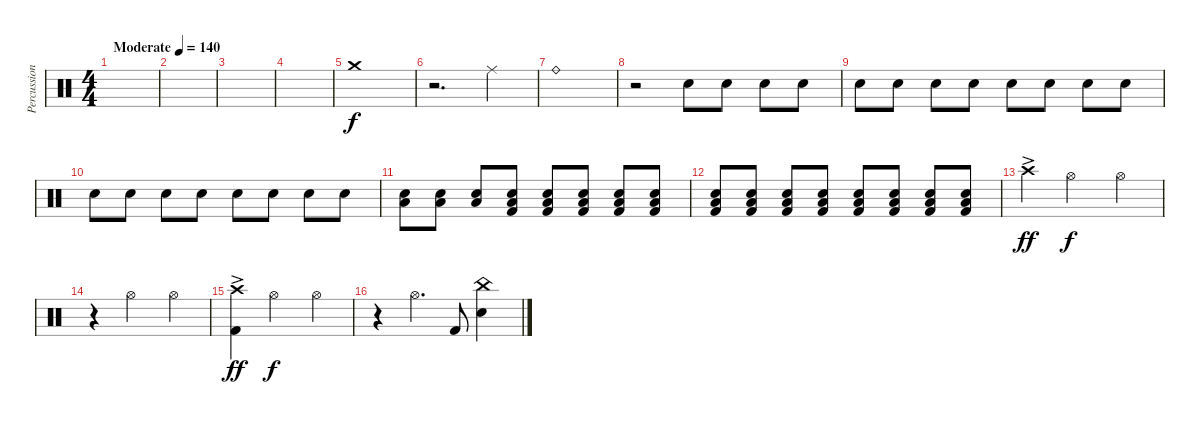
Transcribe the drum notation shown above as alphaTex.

\track ("Percussion" "Percussion") {instrument percussion}
\staff {score}
\articulation defaults
\ts (4 4)
\tempo (140 "Moderate")
\clef neutral
\ks c
|
|
|
|
"Crash medium (hit)".1 |
r.2{d} "Ride (middle)".4 |
"Ride (bell)".1 |
r.2{volume 0} "Electric Snare (hit)".8{volume 13} "Electric Snare (hit)".8 "Electric Snare (hit)".8 "Electric Snare (hit)".8 |
"Electric Snare (hit)".8 "Electric Snare (hit)".8 "Electric Snare (hit)".8 "Electric Snare (hit)".8 "Electric Snare (hit)".8 "Electric Snare (hit)".8 "Electric Snare (hit)".8 "Electric Snare (hit)".8 |
"Electric Snare (hit)".8 "Electric Snare (hit)".8 "Electric Snare (hit)".8 "Electric Snare (hit)".8 "Electric Snare (hit)".8 "Electric Snare (hit)".8 "Electric Snare (hit)".8 "Electric Snare (hit)".8 |
("Electric Snare (hit)" "Low Floor Tom (hit)").8 ("Electric Snare (hit)" "Low Floor Tom (hit)").8 ("Electric Snare (hit)" "Low Floor Tom (hit)").8 ("Electric Snare (hit)" "Low Floor Tom (hit)" "Kick (hit) 2").8 ("Electric Snare (hit)" "Low Floor Tom (hit)" "Kick (hit) 2").8 ("Electric Snare (hit)" "Low Floor Tom (hit)" "Kick (hit) 2").8 ("Electric Snare (hit)" "Low Floor Tom (hit)" "Kick (hit) 2").8 ("Electric Snare (hit)" "Low Floor Tom (hit)" "Kick (hit) 2").8 |
("Electric Snare (hit)" "Low Floor Tom (hit)" "Kick (hit) 2").8 ("Electric Snare (hit)" "Low Floor Tom (hit)" "Kick (hit) 2").8 ("Electric Snare (hit)" "Low Floor Tom (hit)" "Kick (hit) 2").8 ("Electric Snare (hit)" "Low Floor Tom (hit)" "Kick (hit) 2").8 ("Electric Snare (hit)" "Low Floor Tom (hit)" "Kick (hit) 2").8 ("Electric Snare (hit)" "Low Floor Tom (hit)" "Kick (hit) 2").8 ("Electric Snare (hit)" "Low Floor Tom (hit)" "Kick (hit) 2").8 ("Electric Snare (hit)" "Low Floor Tom (hit)" "Kick (hit) 2").8 |
"Crash high (hit)"{ac}.4{dy ff} "Hi-Hat (open)".2{dy f} "Hi-Hat (open)".4 |
r.4 "Hi-Hat (open)".2 "Hi-Hat (open)".4 |
("Crash high (hit)"{ac} "Kick (hit) 2").4{dy ff} "Hi-Hat (open)".2{dy f} "Hi-Hat (open)".4 |
r.4 "Hi-Hat (open)".4{d} "Kick (hit) 2".8 ("China (hit)" "Electric Snare (hit)").4
